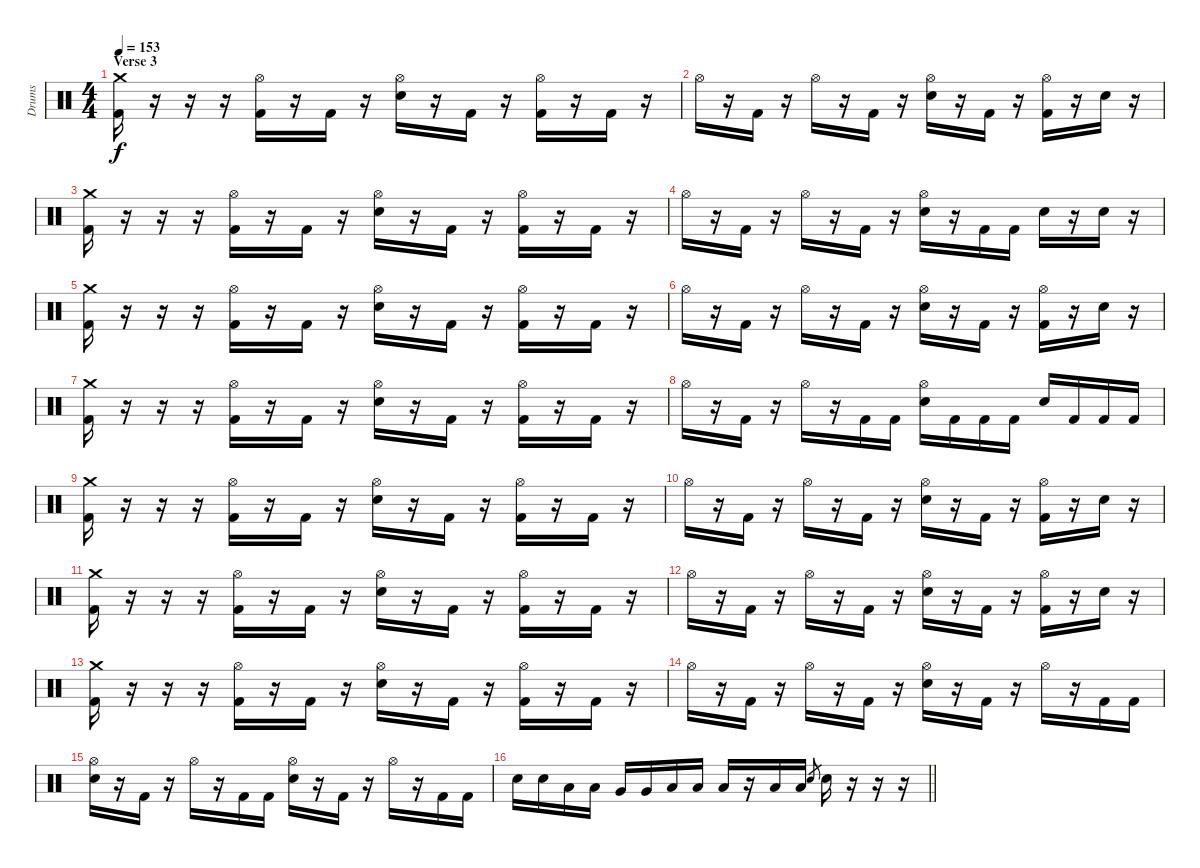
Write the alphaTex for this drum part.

\track ("Drums" "Drums") {instrument percussion}
\staff {score}
\articulation defaults
\ts (4 4)
\section ("" "Verse 3")
\tempo 153
\clef neutral
\ks c
("Crash medium (hit)" "Kick (hit) 2").16{dy f} r.16 r.16 r.16 ("Hi-Hat (open)" "Kick (hit) 2").16 r.16 "Kick (hit) 2".16 r.16 ("Hi-Hat (open)" "Electric Snare (hit)").16 r.16 "Kick (hit) 2".16 r.16 ("Hi-Hat (open)" "Kick (hit) 2").16 r.16 "Kick (hit) 2".16 r.16 |
"Hi-Hat (open)".16 r.16 "Kick (hit) 2".16 r.16 "Hi-Hat (open)".16 r.16 "Kick (hit) 2".16 r.16 ("Hi-Hat (open)" "Electric Snare (hit)").16 r.16 "Kick (hit) 2".16 r.16 ("Hi-Hat (open)" "Kick (hit) 2").16 r.16 "Electric Snare (hit)".16 r.16 |
("Crash medium (hit)" "Kick (hit) 2").16 r.16 r.16 r.16 ("Hi-Hat (open)" "Kick (hit) 2").16 r.16 "Kick (hit) 2".16 r.16 ("Hi-Hat (open)" "Electric Snare (hit)").16 r.16 "Kick (hit) 2".16 r.16 ("Hi-Hat (open)" "Kick (hit) 2").16 r.16 "Kick (hit) 2".16 r.16 |
"Hi-Hat (open)".16 r.16 "Kick (hit) 2".16 r.16 "Hi-Hat (open)".16 r.16 "Kick (hit) 2".16 r.16 ("Hi-Hat (open)" "Electric Snare (hit)").16 r.16 "Kick (hit) 2".16 "Kick (hit) 2".16 "Electric Snare (hit)".16 r.16 "Electric Snare (hit)".16 r.16 |
("Crash medium (hit)" "Kick (hit) 2").16 r.16 r.16 r.16 ("Hi-Hat (open)" "Kick (hit) 2").16 r.16 "Kick (hit) 2".16 r.16 ("Hi-Hat (open)" "Electric Snare (hit)").16 r.16 "Kick (hit) 2".16 r.16 ("Hi-Hat (open)" "Kick (hit) 2").16 r.16 "Kick (hit) 2".16 r.16 |
"Hi-Hat (open)".16 r.16 "Kick (hit) 2".16 r.16 "Hi-Hat (open)".16 r.16 "Kick (hit) 2".16 r.16 ("Hi-Hat (open)" "Electric Snare (hit)").16 r.16 "Kick (hit) 2".16 r.16 ("Hi-Hat (open)" "Kick (hit) 2").16 r.16 "Electric Snare (hit)".16 r.16 |
("Crash medium (hit)" "Kick (hit) 2").16 r.16 r.16 r.16 ("Hi-Hat (open)" "Kick (hit) 2").16 r.16 "Kick (hit) 2".16 r.16 ("Hi-Hat (open)" "Electric Snare (hit)").16 r.16 "Kick (hit) 2".16 r.16 ("Hi-Hat (open)" "Kick (hit) 2").16 r.16 "Kick (hit) 2".16 r.16 |
"Hi-Hat (open)".16 r.16 "Kick (hit) 2".16 r.16 "Hi-Hat (open)".16 r.16 "Kick (hit) 2".16 "Kick (hit) 2".16 ("Hi-Hat (open)" "Electric Snare (hit)").16 "Kick (hit) 2".16 "Kick (hit) 2".16 "Kick (hit) 2".16 "Electric Snare (hit)".16 "Kick (hit) 2".16 "Kick (hit) 2".16 "Kick (hit) 2".16 |
("Crash medium (hit)" "Kick (hit) 2").16 r.16 r.16 r.16 ("Hi-Hat (open)" "Kick (hit) 2").16 r.16 "Kick (hit) 2".16 r.16 ("Hi-Hat (open)" "Electric Snare (hit)").16 r.16 "Kick (hit) 2".16 r.16 ("Hi-Hat (open)" "Kick (hit) 2").16 r.16 "Kick (hit) 2".16 r.16 |
"Hi-Hat (open)".16 r.16 "Kick (hit) 2".16 r.16 "Hi-Hat (open)".16 r.16 "Kick (hit) 2".16 r.16 ("Hi-Hat (open)" "Electric Snare (hit)").16 r.16 "Kick (hit) 2".16 r.16 ("Hi-Hat (open)" "Kick (hit) 2").16 r.16 "Electric Snare (hit)".16 r.16 |
("Crash medium (hit)" "Kick (hit) 2").16 r.16 r.16 r.16 ("Hi-Hat (open)" "Kick (hit) 2").16 r.16 "Kick (hit) 2".16 r.16 ("Hi-Hat (open)" "Electric Snare (hit)").16 r.16 "Kick (hit) 2".16 r.16 ("Hi-Hat (open)" "Kick (hit) 2").16 r.16 "Kick (hit) 2".16 r.16 |
"Hi-Hat (open)".16 r.16 "Kick (hit) 2".16 r.16 "Hi-Hat (open)".16 r.16 "Kick (hit) 2".16 r.16 ("Hi-Hat (open)" "Electric Snare (hit)").16 r.16 "Kick (hit) 2".16 r.16 ("Hi-Hat (open)" "Kick (hit) 2").16 r.16 "Electric Snare (hit)".16 r.16 |
("Crash medium (hit)" "Kick (hit) 2").16 r.16 r.16 r.16 ("Hi-Hat (open)" "Kick (hit) 2").16 r.16 "Kick (hit) 2".16 r.16 ("Hi-Hat (open)" "Electric Snare (hit)").16 r.16 "Kick (hit) 2".16 r.16 ("Hi-Hat (open)" "Kick (hit) 2").16 r.16 "Kick (hit) 2".16 r.16 |
"Hi-Hat (open)".16 r.16 "Kick (hit) 2".16 r.16 "Hi-Hat (open)".16 r.16 "Kick (hit) 2".16 r.16 ("Hi-Hat (open)" "Electric Snare (hit)").16 r.16 "Kick (hit) 2".16 r.16 "Hi-Hat (open)".16 r.16 "Kick (hit) 2".16 "Kick (hit) 2".16 |
("Hi-Hat (open)" "Electric Snare (hit)").16 r.16 "Kick (hit) 2".16 r.16 "Hi-Hat (open)".16 r.16 "Kick (hit) 2".16 "Kick (hit) 2".16 ("Hi-Hat (open)" "Electric Snare (hit)").16 r.16 "Kick (hit) 2".16 r.16 "Hi-Hat (open)".16 r.16 "Kick (hit) 2".16 "Kick (hit) 2".16 |
\barLineRight lightlight "Electric Snare (hit)".16 "Electric Snare (hit)".16 "Low Tom (hit)".16 "Low Tom (hit)".16 "Very Low Tom (hit)".16 "Very Low Tom (hit)".16 "Low Floor Tom (hit)".16 "Low Floor Tom (hit)".16 "Low Floor Tom (hit)".16
r.16 "Low Floor Tom (hit)".16 "Low Floor Tom (hit)".16 "Electric Snare (hit)".8{gr} "Electric Snare (hit)".16 r.16 r.16 r.16
